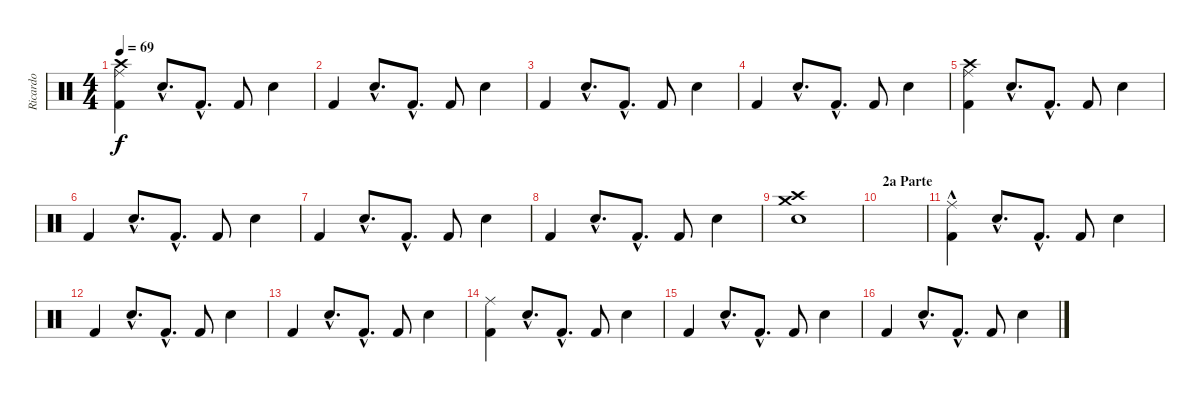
\track ("Ricardo" "Ricardo") {instrument percussion}
\staff {score}
\articulation defaults
\ts (4 4)
\tempo 69
\clef neutral
\ks c
("Kick (hit) 2" "Ride (middle)" "Crash high (hit)").4{dy f} "Electric Snare (hit)"{hac}.8{d} "Kick (hit) 2"{hac}.8{d} "Kick (hit) 2".8 "Electric Snare (hit)".4 |
"Kick (hit) 2".4 "Electric Snare (hit)"{hac}.8{d} "Kick (hit) 2"{hac}.8{d} "Kick (hit) 2".8 "Electric Snare (hit)".4 |
"Kick (hit) 2".4 "Electric Snare (hit)"{hac}.8{d} "Kick (hit) 2"{hac}.8{d} "Kick (hit) 2".8 "Electric Snare (hit)".4 |
"Kick (hit) 2".4 "Electric Snare (hit)"{hac}.8{d} "Kick (hit) 2"{hac}.8{d} "Kick (hit) 2".8 "Electric Snare (hit)".4 |
("Kick (hit) 2" "Ride (middle)" "Crash high (hit)").4 "Electric Snare (hit)"{hac}.8{d} "Kick (hit) 2"{hac}.8{d} "Kick (hit) 2".8 "Electric Snare (hit)".4 |
"Kick (hit) 2".4 "Electric Snare (hit)"{hac}.8{d} "Kick (hit) 2"{hac}.8{d} "Kick (hit) 2".8 "Electric Snare (hit)".4 |
"Kick (hit) 2".4 "Electric Snare (hit)"{hac}.8{d} "Kick (hit) 2"{hac}.8{d} "Kick (hit) 2".8 "Electric Snare (hit)".4 |
"Kick (hit) 2".4 "Electric Snare (hit)"{hac}.8{d} "Kick (hit) 2"{hac}.8{d} "Kick (hit) 2".8 "Electric Snare (hit)".4 |
("Electric Snare (hit)" "Crash medium (hit)" "Crash high (hit)").1 |
\section ("" "2a Parte")
|
("Kick (hit) 2" "Ride (middle)"{hac}).4 "Electric Snare (hit)"{hac}.8{d} "Kick (hit) 2"{hac}.8{d} "Kick (hit) 2".8 "Electric Snare (hit)".4 |
"Kick (hit) 2".4 "Electric Snare (hit)"{hac}.8{d} "Kick (hit) 2"{hac}.8{d} "Kick (hit) 2".8 "Electric Snare (hit)".4 |
"Kick (hit) 2".4 "Electric Snare (hit)"{hac}.8{d} "Kick (hit) 2"{hac}.8{d} "Kick (hit) 2".8 "Electric Snare (hit)".4 |
("Kick (hit) 2" "Ride (middle)").4 "Electric Snare (hit)"{hac}.8{d} "Kick (hit) 2"{hac}.8{d} "Kick (hit) 2".8 "Electric Snare (hit)".4 |
"Kick (hit) 2".4 "Electric Snare (hit)"{hac}.8{d} "Kick (hit) 2"{hac}.8{d} "Kick (hit) 2".8 "Electric Snare (hit)".4 |
"Kick (hit) 2".4 "Electric Snare (hit)"{hac}.8{d} "Kick (hit) 2"{hac}.8{d} "Kick (hit) 2".8 "Electric Snare (hit)".4
